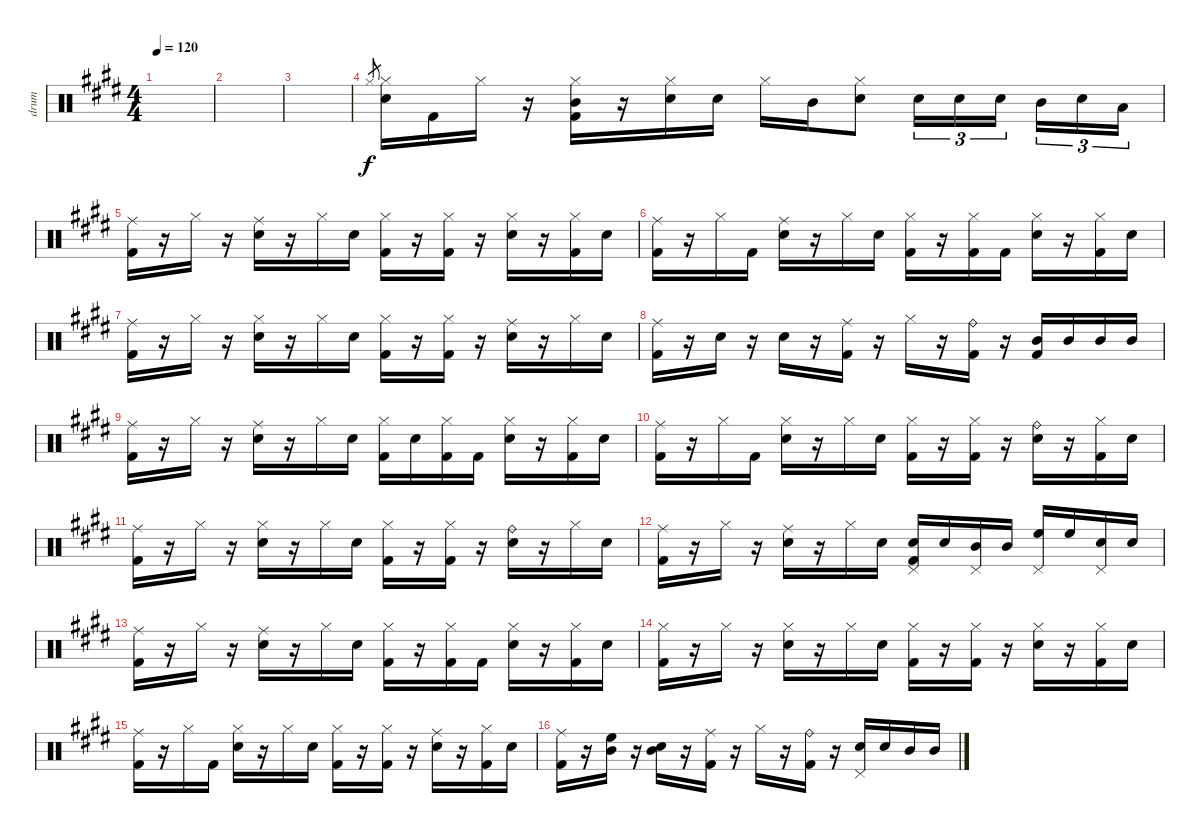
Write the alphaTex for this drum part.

\track ("drum" "drum") {instrument percussion}
\staff {score}
\articulation defaults
\ts (4 4)
\tempo 120
\clef neutral
\ks e
|
|
|
"Hi-Hat (closed)".8{gr} ("Snare (hit) 2" "Hi-Hat (closed)").16 "Kick (hit) 2".16 "Hi-Hat (closed)".16 r.16 ("Mid Tom (hit)" "Kick (hit) 2" "Hi-Hat (closed)").16 r.16 ("Snare (hit) 2" "Hi-Hat (closed)").16 "Snare (hit) 2".16 "Hi-Hat (closed)".16 "Mid Tom (hit)".16 ("Snare (hit) 2" "Hi-Hat (closed)").8 "Snare (hit) 2".16{tu (3 2)} "Snare (hit) 2".16{tu (3 2)} "Snare (hit) 2".16{tu (3 2)} "Mid Tom (hit)".16{tu (3 2)} "Snare (hit) 2".16{tu (3 2)} "Low Tom (hit)".16{tu (3 2)} |
("Kick (hit) 2" "Ride (middle)").16 r.16 "Hi-Hat (closed)".16 r.16 ("Snare (hit) 2" "Ride (middle)").16 r.16 "Hi-Hat (closed)".16 "Snare (hit) 2".16 ("Kick (hit) 2" "Hi-Hat (closed)").16 r.16 ("Kick (hit) 2" "Hi-Hat (closed)").16 r.16 ("Snare (hit) 2" "Hi-Hat (closed)").16 r.16 ("Kick (hit) 2" "Hi-Hat (closed)").16 "Snare (hit) 2".16 |
("Kick (hit) 2" "Ride (middle)").16 r.16 "Hi-Hat (closed)".16 "Kick (hit) 2".16 ("Snare (hit) 2" "Ride (middle)").16 r.16 "Hi-Hat (closed)".16 "Snare (hit) 2".16 ("Kick (hit) 2" "Hi-Hat (closed)").16 r.16 ("Kick (hit) 2" "Hi-Hat (closed)").16 "Kick (hit) 2".16 ("Snare (hit) 2" "Hi-Hat (closed)").16 r.16 ("Kick (hit) 2" "Hi-Hat (closed)").16 "Snare (hit) 2".16 |
("Kick (hit) 2" "Ride (middle)").16 r.16 "Hi-Hat (closed)".16 r.16 ("Snare (hit) 2" "Hi-Hat (closed)").16 r.16 "Hi-Hat (closed)".16 "Snare (hit) 2".16 ("Kick (hit) 2" "Hi-Hat (closed)").16 r.16 ("Kick (hit) 2" "Hi-Hat (closed)").16 r.16 ("Snare (hit) 2" "Ride (middle)").16 r.16 "Hi-Hat (closed)".16 "Snare (hit) 2".16 |
("Kick (hit) 2" "Ride (middle)").16 r.16 "Snare (hit) 2".16 r.16 "Snare (hit) 2".16 r.16 ("Kick (hit) 2" "Ride (middle)").16 r.16 "Hi-Hat (closed)".16 r.16 ("Kick (hit) 2" "Ride (bell)").16 r.16 ("Kick (hit) 2" "Mid Tom (hit)").16 "Mid Tom (hit)".16 "Mid Tom (hit)".16 "Mid Tom (hit)".16 |
("Kick (hit) 2" "Ride (middle)").16 r.16 "Hi-Hat (closed)".16 r.16 ("Snare (hit) 2" "Ride (middle)").16 r.16 "Hi-Hat (closed)".16 "Snare (hit) 2".16 ("Kick (hit) 2" "Hi-Hat (closed)").16 "Snare (hit) 2".16 ("Kick (hit) 2" "Hi-Hat (closed)").16 "Kick (hit) 2".16 ("Snare (hit) 2" "Hi-Hat (closed)").16 r.16 ("Kick (hit) 2" "Hi-Hat (closed)").16 "Snare (hit) 2".16 |
("Kick (hit) 2" "Ride (middle)").16 r.16 "Hi-Hat (closed)".16 "Kick (hit) 2".16 ("Snare (hit) 2" "Hi-Hat (closed)").16 r.16 "Hi-Hat (closed)".16 "Snare (hit) 2".16 ("Kick (hit) 2" "Hi-Hat (closed)").16 r.16 ("Kick (hit) 2" "Hi-Hat (closed)").16 r.16 ("Snare (hit) 2" "Ride (bell)").16 r.16 ("Kick (hit) 2" "Hi-Hat (closed)").16 "Snare (hit) 2".16 |
("Kick (hit) 2" "Ride (middle)").16 r.16 "Hi-Hat (closed)".16 r.16 ("Snare (hit) 2" "Hi-Hat (closed)").16 r.16 "Hi-Hat (closed)".16 "Snare (hit) 2".16 ("Kick (hit) 2" "Hi-Hat (closed)").16 r.16 ("Kick (hit) 2" "Hi-Hat (closed)").16 r.16 ("Snare (hit) 2" "Ride (bell)").16 r.16 "Hi-Hat (closed)".16 "Snare (hit) 2".16 |
("Kick (hit) 2" "Ride (middle)").16 r.16 "Hi-Hat (closed)".16 r.16 ("Snare (hit) 2" "Ride (middle)").16 r.16 "Hi-Hat (closed)".16 "Snare (hit) 2".16 ("Pedal Hi-Hat (hit)" "Kick (hit) 2" "Snare (hit) 2").16 "Snare (hit) 2".16 ("Pedal Hi-Hat (hit)" "Mid Tom (hit)").16 "Mid Tom (hit)".16 ("Pedal Hi-Hat (hit)" "High Floor Tom (hit)").16 "High Floor Tom (hit)".16 ("Pedal Hi-Hat (hit)" "Snare (hit) 2").16 "Snare (hit) 2".16 |
("Kick (hit) 2" "Ride (middle)").16 r.16 "Hi-Hat (closed)".16 r.16 ("Snare (hit) 2" "Ride (middle)").16 r.16 "Hi-Hat (closed)".16 "Snare (hit) 2".16 ("Kick (hit) 2" "Hi-Hat (closed)").16 r.16 ("Kick (hit) 2" "Hi-Hat (closed)").16 "Kick (hit) 2".16 ("Snare (hit) 2" "Hi-Hat (closed)").16 r.16 ("Kick (hit) 2" "Hi-Hat (closed)").16 "Snare (hit) 2".16 |
("Kick (hit) 2" "Hi-Hat (closed)").16 r.16 "Hi-Hat (closed)".16 r.16 ("Snare (hit) 2" "Hi-Hat (closed)").16 r.16 "Hi-Hat (closed)".16 "Snare (hit) 2".16 ("Kick (hit) 2" "Hi-Hat (closed)").16 r.16 ("Kick (hit) 2" "Hi-Hat (closed)").16 r.16 ("Snare (hit) 2" "Hi-Hat (closed)").16 r.16 ("Kick (hit) 2" "Hi-Hat (closed)").16 "Snare (hit) 2".16 |
("Kick (hit) 2" "Ride (middle)").16 r.16 "Hi-Hat (closed)".16 "Kick (hit) 2".16 ("Snare (hit) 2" "Hi-Hat (closed)").16 r.16 "Hi-Hat (closed)".16 "Snare (hit) 2".16 ("Kick (hit) 2" "Hi-Hat (closed)").16 r.16 ("Kick (hit) 2" "Hi-Hat (closed)").16 r.16 ("Snare (hit) 2" "Ride (middle)").16 r.16 ("Kick (hit) 2" "Hi-Hat (closed)").16 "Snare (hit) 2".16 |
("Kick (hit) 2" "Ride (middle)").16 r.16 ("Mid Tom (hit)" "High Floor Tom (hit)").16 r.16 ("Mid Tom (hit)" "Snare (hit) 2").16 r.16 ("Kick (hit) 2" "Ride (middle)").16 r.16 "Hi-Hat (closed)".16 r.16 ("Kick (hit) 2" "Ride (bell)").16 r.16 ("Pedal Hi-Hat (hit)" "Snare (hit) 2").16 "Snare (hit) 2".16 "Mid Tom (hit)".16 "Mid Tom (hit)".16
